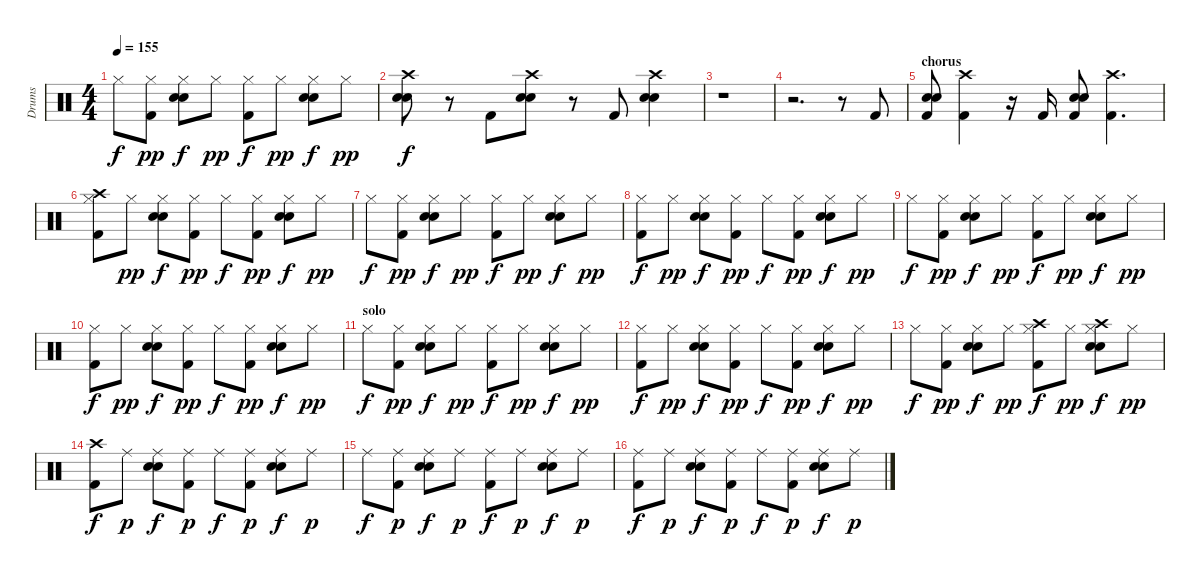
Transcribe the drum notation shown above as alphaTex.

\track ("Drums" "Drums") {instrument percussion}
\staff {score}
\articulation defaults
\ts (4 4)
\tempo 155
\clef neutral
\ks c "Hi-Hat (closed)".8{dy f}
("Hi-Hat (closed)" "Kick (hit) 2").8{dy pp} ("Hi-Hat (closed)" "Snare (hit) 2" "Electric Snare (hit)").8{dy f} "Hi-Hat (closed)".8{dy pp} ("Hi-Hat (closed)" "Kick (hit) 2").8{dy f} "Hi-Hat (closed)".8{dy pp} ("Hi-Hat (closed)" "Snare (hit) 2" "Electric Snare (hit)").8{dy f} "Hi-Hat (closed)".8{dy pp} |
("Crash high (hit)" "Snare (hit) 2" "Electric Snare (hit)").8{dy f} r.8 "Kick (hit) 2".8 ("Crash high (hit)" "Snare (hit) 2" "Electric Snare (hit)").8 r.8 "Kick (hit) 2".8 ("Crash high (hit)" "Snare (hit) 2" "Electric Snare (hit)").4 |
r.1 |
r.2{d} r.8 "Kick (hit) 2".8 |
\section ("" "chorus")
("Snare (hit) 2" "Electric Snare (hit)" "Kick (hit) 2").8 ("Crash high (hit)" "Kick (hit) 2").4 r.16 "Kick (hit) 2".16 ("Snare (hit) 2" "Electric Snare (hit)" "Kick (hit) 2").8 ("Crash high (hit)" "Kick (hit) 2").4{d} |
("Hi-Hat (closed)" "Crash high (hit)" "Kick (hit) 2").8 "Hi-Hat (closed)".8{dy pp} ("Hi-Hat (closed)" "Snare (hit) 2" "Electric Snare (hit)").8{dy f} ("Hi-Hat (closed)" "Kick (hit) 2").8{dy pp} "Hi-Hat (closed)".8{dy f} ("Hi-Hat (closed)" "Kick (hit) 2").8{dy pp} ("Hi-Hat (closed)" "Snare (hit) 2" "Electric Snare (hit)").8{dy f} "Hi-Hat (closed)".8{dy pp} |
"Hi-Hat (closed)".8{dy f} ("Hi-Hat (closed)" "Kick (hit) 2").8{dy pp} ("Hi-Hat (closed)" "Snare (hit) 2" "Electric Snare (hit)").8{dy f} "Hi-Hat (closed)".8{dy pp} ("Hi-Hat (closed)" "Kick (hit) 2").8{dy f} "Hi-Hat (closed)".8{dy pp} ("Hi-Hat (closed)" "Snare (hit) 2" "Electric Snare (hit)").8{dy f} "Hi-Hat (closed)".8{dy pp} |
("Hi-Hat (closed)" "Kick (hit) 2").8{dy f} "Hi-Hat (closed)".8{dy pp} ("Hi-Hat (closed)" "Snare (hit) 2" "Electric Snare (hit)").8{dy f} ("Hi-Hat (closed)" "Kick (hit) 2").8{dy pp} "Hi-Hat (closed)".8{dy f} ("Hi-Hat (closed)" "Kick (hit) 2").8{dy pp} ("Hi-Hat (closed)" "Snare (hit) 2" "Electric Snare (hit)").8{dy f} "Hi-Hat (closed)".8{dy pp} |
"Hi-Hat (closed)".8{dy f} ("Hi-Hat (closed)" "Kick (hit) 2").8{dy pp} ("Hi-Hat (closed)" "Snare (hit) 2" "Electric Snare (hit)").8{dy f} "Hi-Hat (closed)".8{dy pp} ("Hi-Hat (closed)" "Kick (hit) 2").8{dy f} "Hi-Hat (closed)".8{dy pp} ("Hi-Hat (closed)" "Snare (hit) 2" "Electric Snare (hit)").8{dy f} "Hi-Hat (closed)".8{dy pp} |
("Hi-Hat (closed)" "Kick (hit) 2").8{dy f} "Hi-Hat (closed)".8{dy pp} ("Hi-Hat (closed)" "Snare (hit) 2" "Electric Snare (hit)").8{dy f} ("Hi-Hat (closed)" "Kick (hit) 2").8{dy pp} "Hi-Hat (closed)".8{dy f} ("Hi-Hat (closed)" "Kick (hit) 2").8{dy pp} ("Hi-Hat (closed)" "Snare (hit) 2" "Electric Snare (hit)").8{dy f} "Hi-Hat (closed)".8{dy pp} |
\section ("" "solo")
"Hi-Hat (closed)".8{dy f} ("Hi-Hat (closed)" "Kick (hit) 2").8{dy pp} ("Hi-Hat (closed)" "Snare (hit) 2" "Electric Snare (hit)").8{dy f} "Hi-Hat (closed)".8{dy pp} ("Hi-Hat (closed)" "Kick (hit) 2").8{dy f} "Hi-Hat (closed)".8{dy pp} ("Hi-Hat (closed)" "Snare (hit) 2" "Electric Snare (hit)").8{dy f} "Hi-Hat (closed)".8{dy pp} |
("Hi-Hat (closed)" "Kick (hit) 2").8{dy f} "Hi-Hat (closed)".8{dy pp} ("Hi-Hat (closed)" "Snare (hit) 2" "Electric Snare (hit)").8{dy f} ("Hi-Hat (closed)" "Kick (hit) 2").8{dy pp} "Hi-Hat (closed)".8{dy f} ("Hi-Hat (closed)" "Kick (hit) 2").8{dy pp} ("Hi-Hat (closed)" "Snare (hit) 2" "Electric Snare (hit)").8{dy f} "Hi-Hat (closed)".8{dy pp} |
"Hi-Hat (closed)".8{dy f} ("Hi-Hat (closed)" "Kick (hit) 2").8{dy pp} ("Hi-Hat (closed)" "Snare (hit) 2" "Electric Snare (hit)").8{dy f} "Hi-Hat (closed)".8{dy pp} ("Hi-Hat (closed)" "Crash high (hit)" "Kick (hit) 2").8{dy f} "Hi-Hat (closed)".8{dy pp} ("Hi-Hat (closed)" "Crash high (hit)" "Snare (hit) 2" "Electric Snare (hit)").8{dy f} "Hi-Hat (closed)".8{dy pp} |
\section ("" "")
("Crash high (hit)" "Kick (hit) 2").8{dy f} "Ride (middle)".8{dy p} ("Ride (middle)" "Snare (hit) 2" "Electric Snare (hit)").8{dy f} ("Ride (middle)" "Kick (hit) 2").8{dy p} "Ride (middle)".8{dy f} ("Ride (middle)" "Kick (hit) 2").8{dy p} ("Ride (middle)" "Snare (hit) 2" "Electric Snare (hit)").8{dy f} "Ride (middle)".8{dy p} |
"Ride (middle)".8{dy f} ("Ride (middle)" "Kick (hit) 2").8{dy p} ("Ride (middle)" "Snare (hit) 2" "Electric Snare (hit)").8{dy f} "Ride (middle)".8{dy p} ("Ride (middle)" "Kick (hit) 2").8{dy f} "Ride (middle)".8{dy p} ("Ride (middle)" "Snare (hit) 2" "Electric Snare (hit)").8{dy f} "Ride (middle)".8{dy p} |
("Ride (middle)" "Kick (hit) 2").8{dy f} "Ride (middle)".8{dy p} ("Ride (middle)" "Snare (hit) 2" "Electric Snare (hit)").8{dy f} ("Ride (middle)" "Kick (hit) 2").8{dy p} "Ride (middle)".8{dy f} ("Ride (middle)" "Kick (hit) 2").8{dy p} ("Ride (middle)" "Snare (hit) 2" "Electric Snare (hit)").8{dy f} "Ride (middle)".8{dy p}
